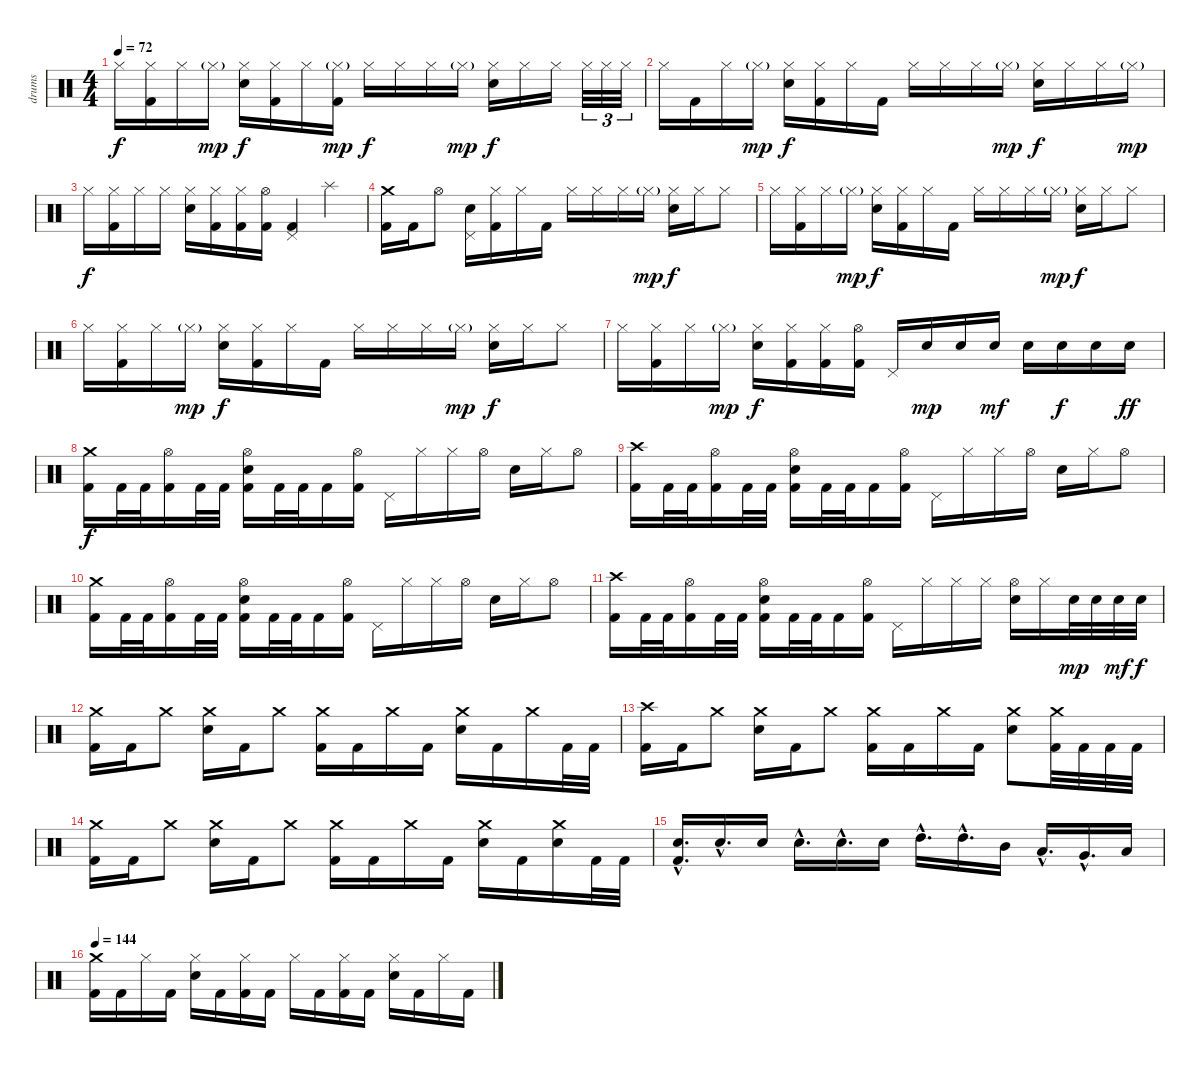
\track ("drums" "drums") {instrument percussion}
\staff {score}
\articulation defaults
\ts (4 4)
\tempo 72
\clef neutral
\ks c "Hi-Hat (closed)".16{dy f}
("Hi-Hat (closed)" "Kick (hit) 2").16 "Hi-Hat (closed)".16 "Hi-Hat (closed)"{g}.16{dy mp} ("Hi-Hat (closed)" "Electric Snare (hit)").16{dy f} ("Hi-Hat (closed)" "Kick (hit) 2").16 "Hi-Hat (closed)".16 ("Hi-Hat (closed)"{g} "Kick (hit) 2").16{dy mp} "Hi-Hat (closed)".16{dy f} "Hi-Hat (closed)".16 "Hi-Hat (closed)".16 "Hi-Hat (closed)"{g}.16{dy mp} ("Hi-Hat (closed)" "Electric Snare (hit)").16{dy f} "Hi-Hat (closed)".16 "Hi-Hat (closed)".16 "Hi-Hat (closed)".32{tu (3 2)} "Hi-Hat (closed)".32{tu (3 2)} "Hi-Hat (closed)".32{tu (3 2)} |
"Hi-Hat (closed)".16 "Kick (hit) 2".16 "Hi-Hat (closed)".16 "Hi-Hat (closed)"{g}.16{dy mp} ("Hi-Hat (closed)" "Electric Snare (hit)").16{dy f} ("Hi-Hat (closed)" "Kick (hit) 2").16 "Hi-Hat (closed)".16 "Kick (hit) 2".16 "Hi-Hat (closed)".16 "Hi-Hat (closed)".16 "Hi-Hat (closed)".16 "Hi-Hat (closed)"{g}.16{dy mp} ("Hi-Hat (closed)" "Electric Snare (hit)").16{dy f} "Hi-Hat (closed)".16 "Hi-Hat (closed)".16 "Hi-Hat (closed)"{g}.16{dy mp} |
"Hi-Hat (closed)".16{dy f} ("Hi-Hat (closed)" "Kick (hit) 2").16 "Hi-Hat (closed)".16 "Hi-Hat (closed)".16 ("Hi-Hat (closed)" "Electric Snare (hit)").16 ("Hi-Hat (closed)" "Kick (hit) 2").16 ("Hi-Hat (closed)" "Kick (hit) 2").16 ("Hi-Hat (open)" "Kick (hit) 2").16 ("Pedal Hi-Hat (hit)" "Kick (hit) 2").4 "Splash (hit)".4 |
("Crash medium (hit)" "Kick (hit) 2").16 "Kick (hit) 2".16 "Hi-Hat (open)".8 ("Electric Snare (hit)" "Pedal Hi-Hat (hit)").16 ("Hi-Hat (closed)" "Kick (hit) 2").16 "Hi-Hat (closed)".16 "Kick (hit) 2".16 "Hi-Hat (closed)".16 "Hi-Hat (closed)".16 "Hi-Hat (closed)".16 "Hi-Hat (closed)"{g}.16{dy mp} ("Hi-Hat (closed)" "Electric Snare (hit)").16{dy f} "Hi-Hat (closed)".16 "Hi-Hat (closed)".8 |
"Hi-Hat (closed)".16 ("Hi-Hat (closed)" "Kick (hit) 2").16 "Hi-Hat (closed)".16 "Hi-Hat (closed)"{g}.16{dy mp} ("Hi-Hat (closed)" "Electric Snare (hit)").16{dy f} ("Hi-Hat (closed)" "Kick (hit) 2").16 "Hi-Hat (closed)".16 "Kick (hit) 2".16 "Hi-Hat (closed)".16 "Hi-Hat (closed)".16 "Hi-Hat (closed)".16 "Hi-Hat (closed)"{g}.16{dy mp} ("Hi-Hat (closed)" "Electric Snare (hit)").16{dy f} "Hi-Hat (closed)".16 "Hi-Hat (closed)".8 |
"Hi-Hat (closed)".16 ("Hi-Hat (closed)" "Kick (hit) 2").16 "Hi-Hat (closed)".16 "Hi-Hat (closed)"{g}.16{dy mp} ("Hi-Hat (closed)" "Electric Snare (hit)").16{dy f} ("Hi-Hat (closed)" "Kick (hit) 2").16 "Hi-Hat (closed)".16 "Kick (hit) 2".16 "Hi-Hat (closed)".16 "Hi-Hat (closed)".16 "Hi-Hat (closed)".16 "Hi-Hat (closed)"{g}.16{dy mp} ("Hi-Hat (closed)" "Electric Snare (hit)").16{dy f} "Hi-Hat (closed)".16 "Hi-Hat (closed)".8 |
"Hi-Hat (closed)".16 ("Hi-Hat (closed)" "Kick (hit) 2").16 "Hi-Hat (closed)".16 "Hi-Hat (closed)"{g}.16{dy mp} ("Hi-Hat (closed)" "Electric Snare (hit)").16{dy f} ("Hi-Hat (closed)" "Kick (hit) 2").16 ("Hi-Hat (closed)" "Kick (hit) 2").16 ("Hi-Hat (open)" "Kick (hit) 2").16 "Pedal Hi-Hat (hit)".16{volume 16} "Electric Snare (hit)".16{dy mp} "Electric Snare (hit)".16 "Electric Snare (hit)".16{dy mf} "Electric Snare (hit)".16 "Electric Snare (hit)".16{dy f} "Electric Snare (hit)".16 "Electric Snare (hit)".16{dy ff} |
("Crash medium (hit)" "Kick (hit) 2").16{dy f} "Kick (hit) 2".32 "Kick (hit) 2".32 ("Hi-Hat (open)" "Kick (hit) 2").16 "Kick (hit) 2".32 "Kick (hit) 2".32 ("Hi-Hat (open)" "Electric Snare (hit)" "Kick (hit) 2").16 "Kick (hit) 2".32 "Kick (hit) 2".32 "Kick (hit) 2".16 ("Hi-Hat (open)" "Kick (hit) 2").16 "Pedal Hi-Hat (hit)".16 "Hi-Hat (closed)".16 "Hi-Hat (closed)".16 "Hi-Hat (open)".16 "Electric Snare (hit)".16 "Hi-Hat (closed)".16 "Hi-Hat (open)".8 |
("Crash high (hit)" "Kick (hit) 2").16 "Kick (hit) 2".32 "Kick (hit) 2".32 ("Hi-Hat (open)" "Kick (hit) 2").16 "Kick (hit) 2".32 "Kick (hit) 2".32 ("Hi-Hat (open)" "Electric Snare (hit)" "Kick (hit) 2").16 "Kick (hit) 2".32 "Kick (hit) 2".32 "Kick (hit) 2".16 ("Hi-Hat (open)" "Kick (hit) 2").16 "Pedal Hi-Hat (hit)".16 "Hi-Hat (closed)".16 "Hi-Hat (closed)".16 "Hi-Hat (open)".16 "Electric Snare (hit)".16 "Hi-Hat (closed)".16 "Hi-Hat (open)".8 |
("Crash medium (hit)" "Kick (hit) 2").16 "Kick (hit) 2".32 "Kick (hit) 2".32 ("Hi-Hat (open)" "Kick (hit) 2").16 "Kick (hit) 2".32 "Kick (hit) 2".32 ("Hi-Hat (open)" "Electric Snare (hit)" "Kick (hit) 2").16 "Kick (hit) 2".32 "Kick (hit) 2".32 "Kick (hit) 2".16 ("Hi-Hat (open)" "Kick (hit) 2").16 "Pedal Hi-Hat (hit)".16 "Hi-Hat (closed)".16 "Hi-Hat (closed)".16 "Hi-Hat (open)".16 "Electric Snare (hit)".16 "Hi-Hat (closed)".16 "Hi-Hat (open)".8 |
("Crash high (hit)" "Kick (hit) 2").16 "Kick (hit) 2".32 "Kick (hit) 2".32 ("Hi-Hat (open)" "Kick (hit) 2").16 "Kick (hit) 2".32 "Kick (hit) 2".32 ("Hi-Hat (open)" "Electric Snare (hit)" "Kick (hit) 2").16 "Kick (hit) 2".32 "Kick (hit) 2".32 "Kick (hit) 2".16 ("Hi-Hat (open)" "Kick (hit) 2").16 "Pedal Hi-Hat (hit)".16 "Hi-Hat (closed)".16 "Hi-Hat (closed)".16 "Hi-Hat (closed)".16 ("Hi-Hat (open)" "Electric Snare (hit)").16 "Hi-Hat (closed)".16 "Electric Snare (hit)".32{dy mp} "Electric Snare (hit)".32 "Electric Snare (hit)".32{dy mf} "Electric Snare (hit)".32{dy f} |
("Crash medium (hit)" "Kick (hit) 2").16 "Kick (hit) 2".16 "Crash medium (hit)".8 ("Crash medium (hit)" "Electric Snare (hit)").16 "Kick (hit) 2".16 "Crash medium (hit)".8 ("Crash medium (hit)" "Kick (hit) 2").16 "Kick (hit) 2".16 "Crash medium (hit)".16 "Kick (hit) 2".16 ("Crash medium (hit)" "Electric Snare (hit)").16 "Kick (hit) 2".16 "Crash medium (hit)".16 "Kick (hit) 2".32 "Kick (hit) 2".32 |
("Crash high (hit)" "Kick (hit) 2").16 "Kick (hit) 2".16 "Crash medium (hit)".8 ("Crash medium (hit)" "Electric Snare (hit)").16 "Kick (hit) 2".16 "Crash medium (hit)".8 ("Crash medium (hit)" "Kick (hit) 2").16 "Kick (hit) 2".16 "Crash medium (hit)".16 "Kick (hit) 2".16 ("Crash medium (hit)" "Electric Snare (hit)").8 ("Crash medium (hit)" "Kick (hit) 2").32 "Kick (hit) 2".32 "Kick (hit) 2".32 "Kick (hit) 2".32 |
("Crash medium (hit)" "Kick (hit) 2").16 "Kick (hit) 2".16 "Crash medium (hit)".8 ("Crash medium (hit)" "Electric Snare (hit)").16 "Kick (hit) 2".16 "Crash medium (hit)".8 ("Crash medium (hit)" "Kick (hit) 2").16 "Kick (hit) 2".16 "Crash medium (hit)".16 "Kick (hit) 2".16 ("Crash medium (hit)" "Electric Snare (hit)").16 "Kick (hit) 2".16 ("Crash medium (hit)" "Electric Snare (hit)").16 "Kick (hit) 2".32 "Kick (hit) 2".32 |
("Electric Snare (hit)"{hac} "Kick (hit) 2"{hac}).16{d} "Electric Snare (hit)"{hac}.16{d} "Electric Snare (hit)".16 "Electric Snare (hit)"{hac}.16{d} "Electric Snare (hit)"{hac}.16{d} "Electric Snare (hit)".16 "High Tom (hit)"{hac}.16{d} "High Tom (hit)"{hac}.16{d} "Mid Tom (hit)".16 "Low Tom (hit)"{hac}.16{d} "Very Low Tom (hit)"{hac}.16{d} "Low Floor Tom (hit)".16 |
\tempo 144
("Crash medium (hit)" "Kick (hit) 2").16 "Kick (hit) 2".16 "Hi-Hat (closed)".16 "Kick (hit) 2".16 ("Hi-Hat (closed)" "Electric Snare (hit)").16 "Kick (hit) 2".16 ("Hi-Hat (closed)" "Kick (hit) 2").16 "Kick (hit) 2".16 "Hi-Hat (closed)".16 "Kick (hit) 2".16 ("Hi-Hat (closed)" "Kick (hit) 2").16 "Kick (hit) 2".16 ("Hi-Hat (closed)" "Electric Snare (hit)").16 "Kick (hit) 2".16 "Hi-Hat (closed)".16 "Kick (hit) 2".16
